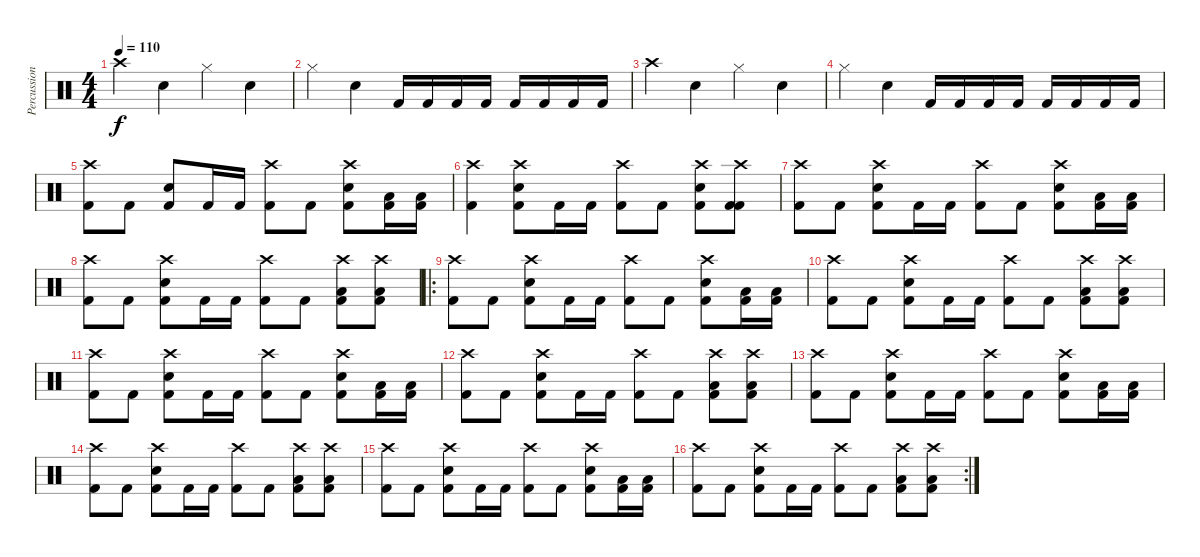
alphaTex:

\track ("Percussion" "Percussion") {instrument percussion}
\staff {score}
\articulation defaults
\ts (4 4)
\tempo 110
\clef neutral
\ks c "Crash high (hit)".4{dy f} "Snare (hit) 2".4 "Hi-Hat (closed)".4 "Snare (hit) 2".4
|
"Hi-Hat (closed)".4 "Snare (hit) 2".4 "Kick (hit) 2".16 "Kick (hit) 2".16 "Kick (hit) 2".16 "Kick (hit) 2".16 "Kick (hit) 2".16 "Kick (hit) 2".16 "Kick (hit) 2".16 "Kick (hit) 2".16 |
"Crash high (hit)".4 "Snare (hit) 2".4 "Hi-Hat (closed)".4 "Snare (hit) 2".4 |
"Hi-Hat (closed)".4 "Snare (hit) 2".4 "Kick (hit) 2".16 "Kick (hit) 2".16 "Kick (hit) 2".16 "Kick (hit) 2".16 "Kick (hit) 2".16 "Kick (hit) 2".16 "Kick (hit) 2".16 "Kick (hit) 2".16 |
("Crash high (hit)" "Kick (hit) 2").8 "Kick (hit) 2".8 ("Snare (hit) 2" "Kick (hit) 2").8 "Kick (hit) 2".16 "Kick (hit) 2".16 ("Crash high (hit)" "Kick (hit) 2").8 "Kick (hit) 2".8 ("Crash high (hit)" "Snare (hit) 2" "Kick (hit) 2").8 ("Low Tom (hit)" "Kick (hit) 2").16 ("Low Floor Tom (hit)" "Kick (hit) 2").16 |
("Crash high (hit)" "Kick (hit) 2").4 ("Crash high (hit)" "Snare (hit) 2" "Kick (hit) 2").8 "Kick (hit) 2".16 "Kick (hit) 2".16 ("Crash high (hit)" "Kick (hit) 2").8 "Kick (hit) 2".8 ("Crash high (hit)" "Snare (hit) 2" "Kick (hit) 2").8 ("Crash high (hit)" "Kick (hit) 2" "Kick (hit) 2").8 |
("Crash high (hit)" "Kick (hit) 2").8 "Kick (hit) 2".8 ("Crash high (hit)" "Snare (hit) 2" "Kick (hit) 2").8 "Kick (hit) 2".16 "Kick (hit) 2".16 ("Crash high (hit)" "Kick (hit) 2").8 "Kick (hit) 2".8 ("Crash high (hit)" "Snare (hit) 2" "Kick (hit) 2").8 ("Low Tom (hit)" "Kick (hit) 2").16 ("Low Floor Tom (hit)" "Kick (hit) 2").16 |
("Crash high (hit)" "Kick (hit) 2").8 "Kick (hit) 2".8 ("Crash high (hit)" "Snare (hit) 2" "Kick (hit) 2").8 "Kick (hit) 2".16 "Kick (hit) 2".16 ("Crash high (hit)" "Kick (hit) 2").8 "Kick (hit) 2".8 ("Crash high (hit)" "Low Tom (hit)" "Kick (hit) 2").8 ("Crash high (hit)" "Low Floor Tom (hit)" "Kick (hit) 2").8 |
\ro
("Crash high (hit)" "Kick (hit) 2").8 "Kick (hit) 2".8 ("Crash high (hit)" "Snare (hit) 2" "Kick (hit) 2").8 "Kick (hit) 2".16 "Kick (hit) 2".16 ("Crash high (hit)" "Kick (hit) 2").8 "Kick (hit) 2".8 ("Crash high (hit)" "Snare (hit) 2" "Kick (hit) 2").8 ("Low Tom (hit)" "Kick (hit) 2").16 ("Low Floor Tom (hit)" "Kick (hit) 2").16 |
("Crash high (hit)" "Kick (hit) 2").8 "Kick (hit) 2".8 ("Crash high (hit)" "Snare (hit) 2" "Kick (hit) 2").8 "Kick (hit) 2".16 "Kick (hit) 2".16 ("Crash high (hit)" "Kick (hit) 2").8 "Kick (hit) 2".8 ("Crash high (hit)" "Low Tom (hit)" "Kick (hit) 2").8 ("Crash high (hit)" "Low Floor Tom (hit)" "Kick (hit) 2").8 |
("Crash high (hit)" "Kick (hit) 2").8 "Kick (hit) 2".8 ("Crash high (hit)" "Snare (hit) 2" "Kick (hit) 2").8 "Kick (hit) 2".16 "Kick (hit) 2".16 ("Crash high (hit)" "Kick (hit) 2").8 "Kick (hit) 2".8 ("Crash high (hit)" "Snare (hit) 2" "Kick (hit) 2").8 ("Low Tom (hit)" "Kick (hit) 2").16 ("Low Floor Tom (hit)" "Kick (hit) 2").16 |
("Crash high (hit)" "Kick (hit) 2").8 "Kick (hit) 2".8 ("Crash high (hit)" "Snare (hit) 2" "Kick (hit) 2").8 "Kick (hit) 2".16 "Kick (hit) 2".16 ("Crash high (hit)" "Kick (hit) 2").8 "Kick (hit) 2".8 ("Crash high (hit)" "Low Tom (hit)" "Kick (hit) 2").8 ("Crash high (hit)" "Low Floor Tom (hit)" "Kick (hit) 2").8 |
("Crash high (hit)" "Kick (hit) 2").8 "Kick (hit) 2".8 ("Crash high (hit)" "Snare (hit) 2" "Kick (hit) 2").8 "Kick (hit) 2".16 "Kick (hit) 2".16 ("Crash high (hit)" "Kick (hit) 2").8 "Kick (hit) 2".8 ("Crash high (hit)" "Snare (hit) 2" "Kick (hit) 2").8 ("Low Tom (hit)" "Kick (hit) 2").16 ("Low Floor Tom (hit)" "Kick (hit) 2").16 |
("Crash high (hit)" "Kick (hit) 2").8 "Kick (hit) 2".8 ("Crash high (hit)" "Snare (hit) 2" "Kick (hit) 2").8 "Kick (hit) 2".16 "Kick (hit) 2".16 ("Crash high (hit)" "Kick (hit) 2").8 "Kick (hit) 2".8 ("Crash high (hit)" "Low Tom (hit)" "Kick (hit) 2").8 ("Crash high (hit)" "Low Floor Tom (hit)" "Kick (hit) 2").8 |
("Crash high (hit)" "Kick (hit) 2").8 "Kick (hit) 2".8 ("Crash high (hit)" "Snare (hit) 2" "Kick (hit) 2").8 "Kick (hit) 2".16 "Kick (hit) 2".16 ("Crash high (hit)" "Kick (hit) 2").8 "Kick (hit) 2".8 ("Crash high (hit)" "Snare (hit) 2" "Kick (hit) 2").8 ("Low Tom (hit)" "Kick (hit) 2").16 ("Low Floor Tom (hit)" "Kick (hit) 2").16 |
\rc 2
("Crash high (hit)" "Kick (hit) 2").8 "Kick (hit) 2".8 ("Crash high (hit)" "Snare (hit) 2" "Kick (hit) 2").8 "Kick (hit) 2".16 "Kick (hit) 2".16 ("Crash high (hit)" "Kick (hit) 2").8 "Kick (hit) 2".8 ("Crash high (hit)" "Low Tom (hit)" "Kick (hit) 2").8 ("Crash high (hit)" "Low Floor Tom (hit)" "Kick (hit) 2").8
